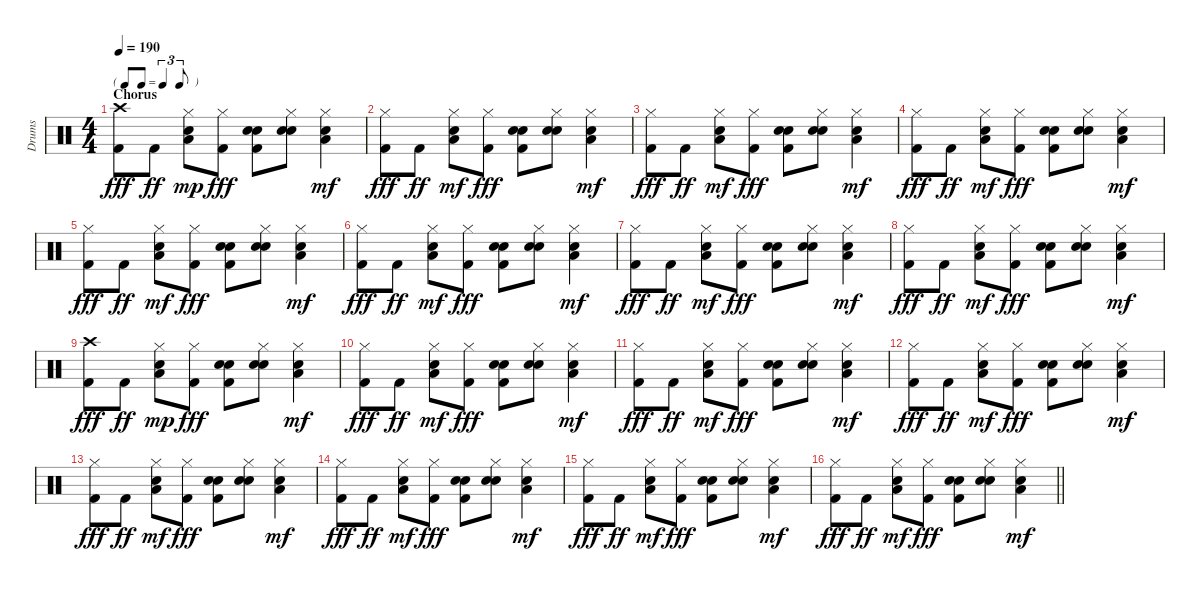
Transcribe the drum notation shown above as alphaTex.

\track ("Drums" "Drums") {instrument percussion}
\staff {score}
\articulation defaults
\ts (4 4)
\tf triplet8th
\section ("" "Chorus")
\tempo 190
\clef neutral
\ks c
("Crash high (hit)" "Kick (hit) 2").8{dy fff} "Kick (hit) 2".8{dy ff} ("Hi-Hat (closed)" "Low Tom (hit)" "Hand Clap (hit)").8{dy mp} ("Hi-Hat (closed)" "Kick (hit) 2").8{dy fff} ("Kick (hit) 2" "Hand Clap (hit)" "Hand Clap (hit)").8 ("Hi-Hat (closed)" "Hand Clap (hit)" "Hand Clap (hit)").8 ("Hi-Hat (closed)" "Low Tom (hit)" "Hand Clap (hit)").4{dy mf} |
("Hi-Hat (closed)" "Kick (hit) 2").8{dy fff} "Kick (hit) 2".8{dy ff} ("Hi-Hat (closed)" "Low Tom (hit)" "Hand Clap (hit)").8{dy mf} ("Hi-Hat (closed)" "Kick (hit) 2").8{dy fff} ("Kick (hit) 2" "Hand Clap (hit)" "Hand Clap (hit)").8 ("Hi-Hat (closed)" "Hand Clap (hit)" "Hand Clap (hit)").8 ("Hi-Hat (closed)" "Low Tom (hit)" "Hand Clap (hit)").4{dy mf} |
("Hi-Hat (closed)" "Kick (hit) 2").8{dy fff} "Kick (hit) 2".8{dy ff} ("Hi-Hat (closed)" "Low Tom (hit)" "Hand Clap (hit)").8{dy mf} ("Hi-Hat (closed)" "Kick (hit) 2").8{dy fff} ("Kick (hit) 2" "Hand Clap (hit)" "Hand Clap (hit)").8 ("Hi-Hat (closed)" "Hand Clap (hit)" "Hand Clap (hit)").8 ("Hi-Hat (closed)" "Low Tom (hit)" "Hand Clap (hit)").4{dy mf} |
("Hi-Hat (closed)" "Kick (hit) 2").8{dy fff} "Kick (hit) 2".8{dy ff} ("Hi-Hat (closed)" "Low Tom (hit)" "Hand Clap (hit)").8{dy mf} ("Hi-Hat (closed)" "Kick (hit) 2").8{dy fff} ("Kick (hit) 2" "Hand Clap (hit)" "Hand Clap (hit)").8 ("Hi-Hat (closed)" "Hand Clap (hit)" "Hand Clap (hit)").8 ("Hi-Hat (closed)" "Low Tom (hit)" "Hand Clap (hit)").4{dy mf} |
("Hi-Hat (closed)" "Kick (hit) 2").8{dy fff} "Kick (hit) 2".8{dy ff} ("Hi-Hat (closed)" "Low Tom (hit)" "Hand Clap (hit)").8{dy mf} ("Hi-Hat (closed)" "Kick (hit) 2").8{dy fff} ("Kick (hit) 2" "Hand Clap (hit)" "Hand Clap (hit)").8 ("Hi-Hat (closed)" "Hand Clap (hit)" "Hand Clap (hit)").8 ("Hi-Hat (closed)" "Low Tom (hit)" "Hand Clap (hit)").4{dy mf} |
("Hi-Hat (closed)" "Kick (hit) 2").8{dy fff} "Kick (hit) 2".8{dy ff} ("Hi-Hat (closed)" "Low Tom (hit)" "Hand Clap (hit)").8{dy mf} ("Hi-Hat (closed)" "Kick (hit) 2").8{dy fff} ("Kick (hit) 2" "Hand Clap (hit)" "Hand Clap (hit)").8 ("Hi-Hat (closed)" "Hand Clap (hit)" "Hand Clap (hit)").8 ("Hi-Hat (closed)" "Low Tom (hit)" "Hand Clap (hit)").4{dy mf} |
("Hi-Hat (closed)" "Kick (hit) 2").8{dy fff} "Kick (hit) 2".8{dy ff} ("Hi-Hat (closed)" "Low Tom (hit)" "Hand Clap (hit)").8{dy mf} ("Hi-Hat (closed)" "Kick (hit) 2").8{dy fff} ("Kick (hit) 2" "Hand Clap (hit)" "Hand Clap (hit)").8 ("Hi-Hat (closed)" "Hand Clap (hit)" "Hand Clap (hit)").8 ("Hi-Hat (closed)" "Low Tom (hit)" "Hand Clap (hit)").4{dy mf} |
("Hi-Hat (closed)" "Kick (hit) 2").8{dy fff} "Kick (hit) 2".8{dy ff} ("Hi-Hat (closed)" "Low Tom (hit)" "Hand Clap (hit)").8{dy mf} ("Hi-Hat (closed)" "Kick (hit) 2").8{dy fff} ("Kick (hit) 2" "Hand Clap (hit)" "Hand Clap (hit)").8 ("Hi-Hat (closed)" "Hand Clap (hit)" "Hand Clap (hit)").8 ("Hi-Hat (closed)" "Low Tom (hit)" "Hand Clap (hit)").4{dy mf} |
("Crash high (hit)" "Kick (hit) 2").8{dy fff} "Kick (hit) 2".8{dy ff} ("Hi-Hat (closed)" "Low Tom (hit)" "Hand Clap (hit)").8{dy mp} ("Hi-Hat (closed)" "Kick (hit) 2").8{dy fff} ("Kick (hit) 2" "Hand Clap (hit)" "Hand Clap (hit)").8 ("Hi-Hat (closed)" "Hand Clap (hit)" "Hand Clap (hit)").8 ("Hi-Hat (closed)" "Low Tom (hit)" "Hand Clap (hit)").4{dy mf} |
("Hi-Hat (closed)" "Kick (hit) 2").8{dy fff} "Kick (hit) 2".8{dy ff} ("Hi-Hat (closed)" "Low Tom (hit)" "Hand Clap (hit)").8{dy mf} ("Hi-Hat (closed)" "Kick (hit) 2").8{dy fff} ("Kick (hit) 2" "Hand Clap (hit)" "Hand Clap (hit)").8 ("Hi-Hat (closed)" "Hand Clap (hit)" "Hand Clap (hit)").8 ("Hi-Hat (closed)" "Low Tom (hit)" "Hand Clap (hit)").4{dy mf} |
("Hi-Hat (closed)" "Kick (hit) 2").8{dy fff} "Kick (hit) 2".8{dy ff} ("Hi-Hat (closed)" "Low Tom (hit)" "Hand Clap (hit)").8{dy mf} ("Hi-Hat (closed)" "Kick (hit) 2").8{dy fff} ("Kick (hit) 2" "Hand Clap (hit)" "Hand Clap (hit)").8 ("Hi-Hat (closed)" "Hand Clap (hit)" "Hand Clap (hit)").8 ("Hi-Hat (closed)" "Low Tom (hit)" "Hand Clap (hit)").4{dy mf} |
("Hi-Hat (closed)" "Kick (hit) 2").8{dy fff} "Kick (hit) 2".8{dy ff} ("Hi-Hat (closed)" "Low Tom (hit)" "Hand Clap (hit)").8{dy mf} ("Hi-Hat (closed)" "Kick (hit) 2").8{dy fff} ("Kick (hit) 2" "Hand Clap (hit)" "Hand Clap (hit)").8 ("Hi-Hat (closed)" "Hand Clap (hit)" "Hand Clap (hit)").8 ("Hi-Hat (closed)" "Low Tom (hit)" "Hand Clap (hit)").4{dy mf} |
("Hi-Hat (closed)" "Kick (hit) 2").8{dy fff} "Kick (hit) 2".8{dy ff} ("Hi-Hat (closed)" "Low Tom (hit)" "Hand Clap (hit)").8{dy mf} ("Hi-Hat (closed)" "Kick (hit) 2").8{dy fff} ("Kick (hit) 2" "Hand Clap (hit)" "Hand Clap (hit)").8 ("Hi-Hat (closed)" "Hand Clap (hit)" "Hand Clap (hit)").8 ("Hi-Hat (closed)" "Low Tom (hit)" "Hand Clap (hit)").4{dy mf} |
("Hi-Hat (closed)" "Kick (hit) 2").8{dy fff} "Kick (hit) 2".8{dy ff} ("Hi-Hat (closed)" "Low Tom (hit)" "Hand Clap (hit)").8{dy mf} ("Hi-Hat (closed)" "Kick (hit) 2").8{dy fff} ("Kick (hit) 2" "Hand Clap (hit)" "Hand Clap (hit)").8 ("Hi-Hat (closed)" "Hand Clap (hit)" "Hand Clap (hit)").8 ("Hi-Hat (closed)" "Low Tom (hit)" "Hand Clap (hit)").4{dy mf} |
("Hi-Hat (closed)" "Kick (hit) 2").8{dy fff} "Kick (hit) 2".8{dy ff} ("Hi-Hat (closed)" "Low Tom (hit)" "Hand Clap (hit)").8{dy mf} ("Hi-Hat (closed)" "Kick (hit) 2").8{dy fff} ("Kick (hit) 2" "Hand Clap (hit)" "Hand Clap (hit)").8 ("Hi-Hat (closed)" "Hand Clap (hit)" "Hand Clap (hit)").8 ("Hi-Hat (closed)" "Low Tom (hit)" "Hand Clap (hit)").4{dy mf} |
\barLineRight lightlight
("Hi-Hat (closed)" "Kick (hit) 2").8{dy fff} "Kick (hit) 2".8{dy ff} ("Hi-Hat (closed)" "Low Tom (hit)" "Hand Clap (hit)").8{dy mf} ("Hi-Hat (closed)" "Kick (hit) 2").8{dy fff} ("Kick (hit) 2" "Hand Clap (hit)" "Hand Clap (hit)").8 ("Hi-Hat (closed)" "Hand Clap (hit)" "Hand Clap (hit)").8 ("Hi-Hat (closed)" "Low Tom (hit)" "Hand Clap (hit)").4{dy mf}
